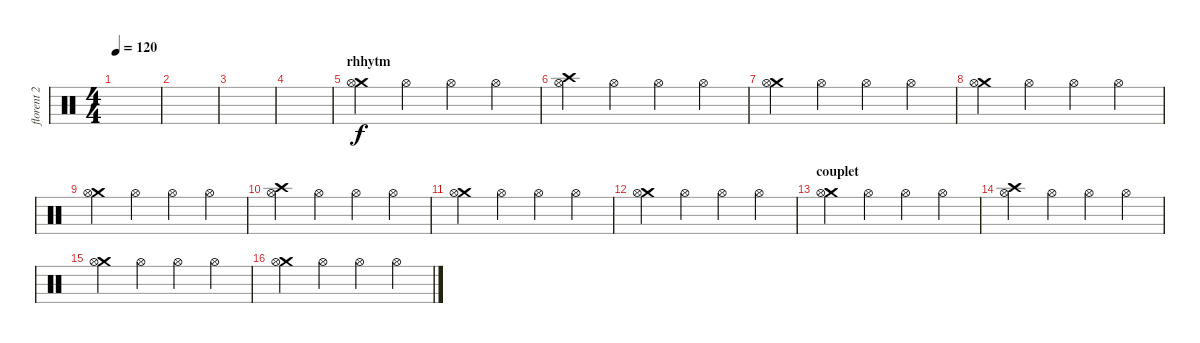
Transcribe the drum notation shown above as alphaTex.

\track ("florent 2" "florent 2") {instrument percussion}
\staff {score}
\articulation defaults
\ts (4 4)
\tempo 120
\clef neutral
\ks c
|
|
|
|
\section ("" "rhhytm")
("Crash medium (hit)" "Hi-Hat (open)").4 "Hi-Hat (open)".4 "Hi-Hat (open)".4 "Hi-Hat (open)".4 |
("Crash high (hit)" "Hi-Hat (open)").4 "Hi-Hat (open)".4 "Hi-Hat (open)".4 "Hi-Hat (open)".4 |
("Crash medium (hit)" "Hi-Hat (open)").4 "Hi-Hat (open)".4 "Hi-Hat (open)".4 "Hi-Hat (open)".4 |
("Crash medium (hit)" "Hi-Hat (open)").4 "Hi-Hat (open)".4 "Hi-Hat (open)".4 "Hi-Hat (open)".4 |
("Crash medium (hit)" "Hi-Hat (open)").4 "Hi-Hat (open)".4 "Hi-Hat (open)".4 "Hi-Hat (open)".4 |
("Crash high (hit)" "Hi-Hat (open)").4 "Hi-Hat (open)".4 "Hi-Hat (open)".4 "Hi-Hat (open)".4 |
("Crash medium (hit)" "Hi-Hat (open)").4 "Hi-Hat (open)".4 "Hi-Hat (open)".4 "Hi-Hat (open)".4 |
("Crash medium (hit)" "Hi-Hat (open)").4 "Hi-Hat (open)".4 "Hi-Hat (open)".4 "Hi-Hat (open)".4 |
\section ("" "couplet")
("Crash medium (hit)" "Hi-Hat (open)").4 "Hi-Hat (open)".4 "Hi-Hat (open)".4 "Hi-Hat (open)".4 |
("Crash high (hit)" "Hi-Hat (open)").4 "Hi-Hat (open)".4 "Hi-Hat (open)".4 "Hi-Hat (open)".4 |
("Crash medium (hit)" "Hi-Hat (open)").4 "Hi-Hat (open)".4 "Hi-Hat (open)".4 "Hi-Hat (open)".4 |
("Crash medium (hit)" "Hi-Hat (open)").4 "Hi-Hat (open)".4 "Hi-Hat (open)".4 "Hi-Hat (open)".4
